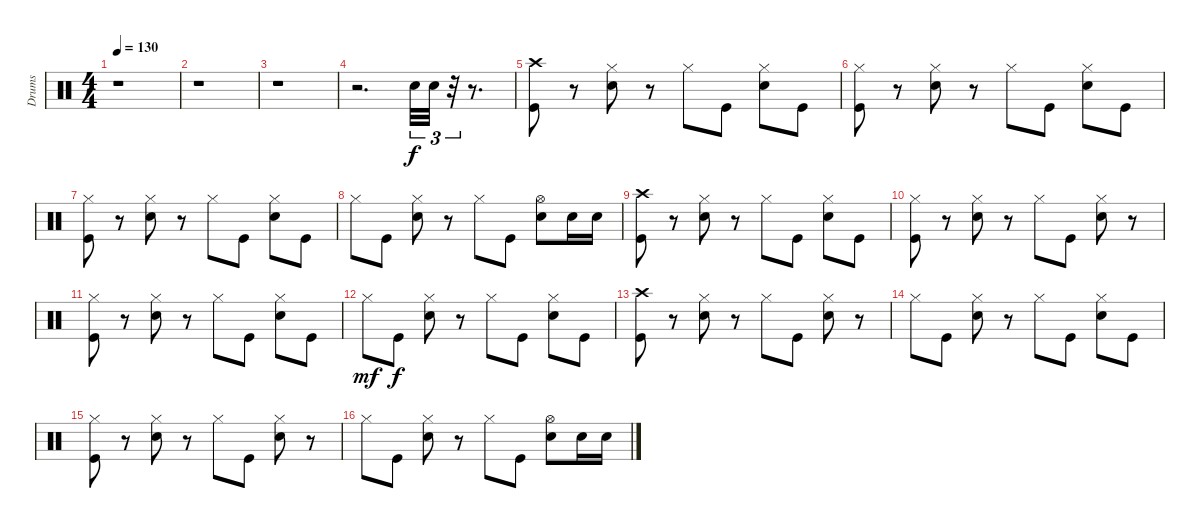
\track ("Drums" "Drums") {instrument percussion}
\staff {score}
\articulation defaults
\ts (4 4)
\tempo 130
\clef neutral
\ks c
r.1{dy f} |
r.1 |
r.1 |
r.2{d} "Snare (hit) 2".32{tu (3 2)} "Snare (hit) 2".32{tu (3 2)} r.32{tu (3 2)} r.8{d} |
("Crash high (hit)" "Kick (hit)").8 r.8 ("Hi-Hat (closed)" "Snare (hit) 2").8 r.8 "Hi-Hat (closed)".8 "Kick (hit)".8 ("Hi-Hat (closed)" "Snare (hit) 2").8 "Kick (hit)".8 |
("Hi-Hat (closed)" "Kick (hit)").8 r.8 ("Hi-Hat (closed)" "Snare (hit) 2").8 r.8 "Hi-Hat (closed)".8 "Kick (hit)".8 ("Hi-Hat (closed)" "Snare (hit) 2").8 "Kick (hit)".8 |
("Hi-Hat (closed)" "Kick (hit)").8 r.8 ("Hi-Hat (closed)" "Snare (hit) 2").8 r.8 "Hi-Hat (closed)".8 "Kick (hit)".8 ("Hi-Hat (closed)" "Snare (hit) 2").8 "Kick (hit)".8 |
"Hi-Hat (closed)".8 "Kick (hit)".8 ("Hi-Hat (closed)" "Snare (hit) 2").8 r.8 "Hi-Hat (closed)".8 "Kick (hit)".8 ("Hi-Hat (open)" "Snare (hit) 2").8 "Snare (hit) 2".16 "Snare (hit) 2".16 |
("Crash high (hit)" "Kick (hit)").8 r.8 ("Hi-Hat (closed)" "Snare (hit) 2").8 r.8 "Hi-Hat (closed)".8 "Kick (hit)".8 ("Hi-Hat (closed)" "Snare (hit) 2").8 "Kick (hit)".8 |
("Hi-Hat (closed)" "Kick (hit)").8 r.8 ("Hi-Hat (closed)" "Snare (hit) 2").8 r.8 "Hi-Hat (closed)".8 "Kick (hit)".8 ("Hi-Hat (closed)" "Snare (hit) 2").8 r.8 |
("Hi-Hat (closed)" "Kick (hit)").8 r.8 ("Hi-Hat (closed)" "Snare (hit) 2").8 r.8 "Hi-Hat (closed)".8 "Kick (hit)".8 ("Hi-Hat (closed)" "Snare (hit) 2").8 "Kick (hit)".8 |
"Hi-Hat (closed)".8{dy mf} "Kick (hit)".8{dy f} ("Hi-Hat (closed)" "Snare (hit) 2").8 r.8 "Hi-Hat (closed)".8 "Kick (hit)".8 ("Hi-Hat (closed)" "Snare (hit) 2").8 "Kick (hit)".8 |
("Crash high (hit)" "Kick (hit)").8 r.8 ("Hi-Hat (closed)" "Snare (hit) 2").8 r.8 "Hi-Hat (closed)".8 "Kick (hit)".8 ("Hi-Hat (closed)" "Snare (hit) 2").8 r.8 |
"Hi-Hat (closed)".8 "Kick (hit)".8 ("Hi-Hat (closed)" "Snare (hit) 2").8 r.8 "Hi-Hat (closed)".8 "Kick (hit)".8 ("Hi-Hat (closed)" "Snare (hit) 2").8 "Kick (hit)".8 |
("Hi-Hat (closed)" "Kick (hit)").8 r.8 ("Hi-Hat (closed)" "Snare (hit) 2").8 r.8 "Hi-Hat (closed)".8 "Kick (hit)".8 ("Hi-Hat (closed)" "Snare (hit) 2").8 r.8 |
"Hi-Hat (closed)".8 "Kick (hit)".8 ("Hi-Hat (closed)" "Snare (hit) 2").8 r.8 "Hi-Hat (closed)".8 "Kick (hit)".8 ("Hi-Hat (open)" "Snare (hit) 2").8 "Snare (hit) 2".16 "Snare (hit) 2".16
